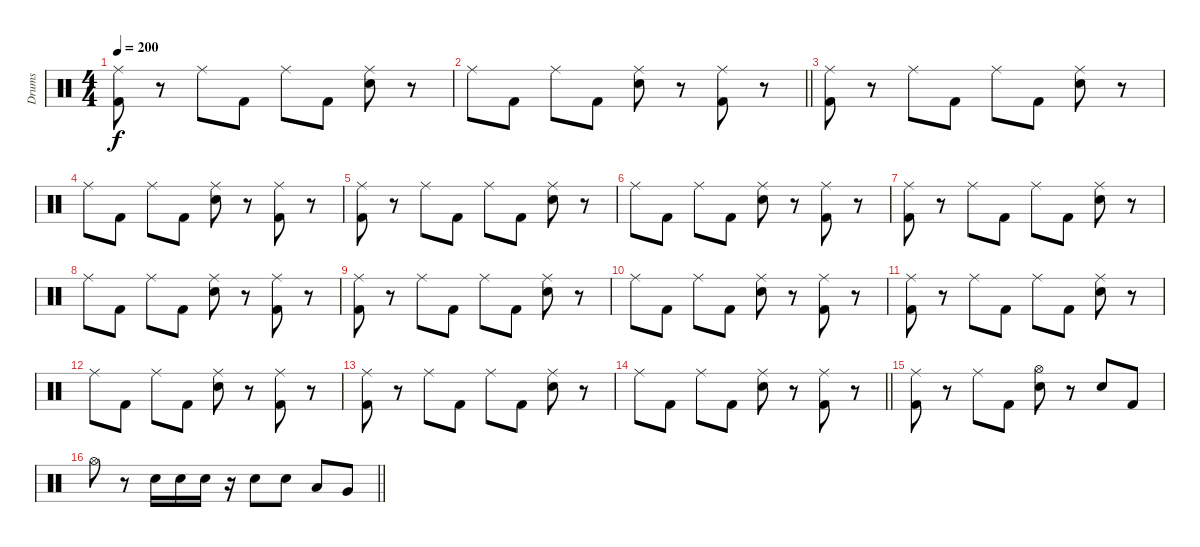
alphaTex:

\track ("Drums" "Drums") {instrument percussion}
\staff {score}
\articulation defaults
\ts (4 4)
\tempo 200
\clef neutral
\ks c
("Ride (middle)" "Kick (hit) 2").8{dy f} r.8 "Ride (middle)".8 "Kick (hit) 2".8 "Ride (middle)".8 "Kick (hit) 2".8 ("Ride (middle)" "Electric Snare (hit)").8 r.8 |
\barLineRight lightlight "Ride (middle)".8 "Kick (hit) 2".8 "Ride (middle)".8 "Kick (hit) 2".8
("Ride (middle)" "Electric Snare (hit)").8 r.8 ("Ride (middle)" "Kick (hit) 2").8 r.8 |
("Ride (middle)" "Kick (hit) 2").8 r.8 "Ride (middle)".8 "Kick (hit) 2".8 "Ride (middle)".8 "Kick (hit) 2".8 ("Ride (middle)" "Electric Snare (hit)").8 r.8 |
"Ride (middle)".8 "Kick (hit) 2".8 "Ride (middle)".8 "Kick (hit) 2".8 ("Ride (middle)" "Electric Snare (hit)").8 r.8 ("Ride (middle)" "Kick (hit) 2").8 r.8 |
("Ride (middle)" "Kick (hit) 2").8 r.8 "Ride (middle)".8 "Kick (hit) 2".8 "Ride (middle)".8 "Kick (hit) 2".8 ("Ride (middle)" "Electric Snare (hit)").8 r.8 |
"Ride (middle)".8 "Kick (hit) 2".8 "Ride (middle)".8 "Kick (hit) 2".8 ("Ride (middle)" "Electric Snare (hit)").8 r.8 ("Ride (middle)" "Kick (hit) 2").8 r.8 |
("Ride (middle)" "Kick (hit) 2").8 r.8 "Ride (middle)".8 "Kick (hit) 2".8 "Ride (middle)".8 "Kick (hit) 2".8 ("Ride (middle)" "Electric Snare (hit)").8 r.8 |
"Ride (middle)".8 "Kick (hit) 2".8 "Ride (middle)".8 "Kick (hit) 2".8 ("Ride (middle)" "Electric Snare (hit)").8 r.8 ("Ride (middle)" "Kick (hit) 2").8 r.8 |
("Ride (middle)" "Kick (hit) 2").8 r.8 "Ride (middle)".8 "Kick (hit) 2".8 "Ride (middle)".8 "Kick (hit) 2".8 ("Ride (middle)" "Electric Snare (hit)").8 r.8 |
"Ride (middle)".8 "Kick (hit) 2".8 "Ride (middle)".8 "Kick (hit) 2".8 ("Ride (middle)" "Electric Snare (hit)").8 r.8 ("Ride (middle)" "Kick (hit) 2").8 r.8 |
("Ride (middle)" "Kick (hit) 2").8 r.8 "Ride (middle)".8 "Kick (hit) 2".8 "Ride (middle)".8 "Kick (hit) 2".8 ("Ride (middle)" "Electric Snare (hit)").8 r.8 |
"Ride (middle)".8 "Kick (hit) 2".8 "Ride (middle)".8 "Kick (hit) 2".8 ("Ride (middle)" "Electric Snare (hit)").8 r.8 ("Ride (middle)" "Kick (hit) 2").8 r.8 |
("Ride (middle)" "Kick (hit) 2").8 r.8 "Ride (middle)".8 "Kick (hit) 2".8 "Ride (middle)".8 "Kick (hit) 2".8 ("Ride (middle)" "Electric Snare (hit)").8 r.8 |
\barLineRight lightlight "Ride (middle)".8 "Kick (hit) 2".8 "Ride (middle)".8 "Kick (hit) 2".8
("Ride (middle)" "Electric Snare (hit)").8 r.8 ("Ride (middle)" "Kick (hit) 2").8 r.8 |
("Ride (middle)" "Kick (hit) 2").8 r.8 "Ride (middle)".8 "Kick (hit) 2".8 ("Hi-Hat (open)" "Electric Snare (hit)").8 r.8 "Electric Snare (hit)".8 "Kick (hit) 2".8 |
\barLineRight lightlight "Hi-Hat (open)".8
r.8 "Electric Snare (hit)".16 "Electric Snare (hit)".16 "Electric Snare (hit)".16 r.16 "Electric Snare (hit)".8 "Electric Snare (hit)".8 "Low Tom (hit)".8 "Very Low Tom (hit)".8
